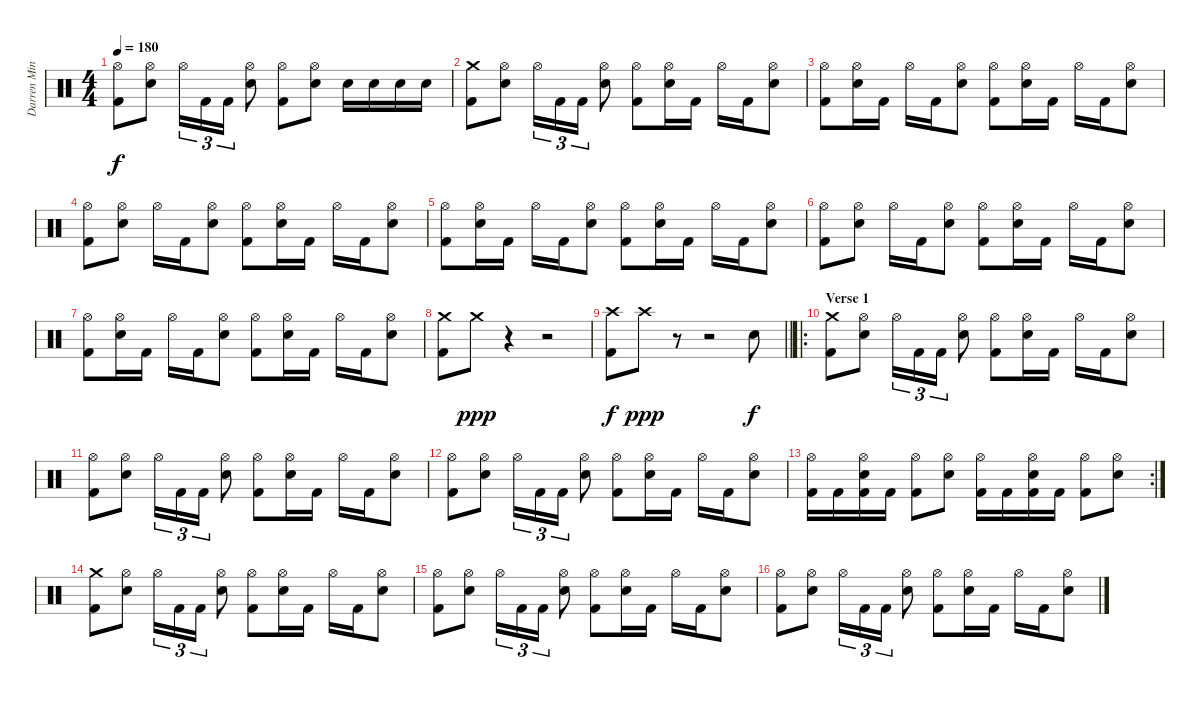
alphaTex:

\track ("Darren Minter" "Darren Min") {instrument percussion}
\staff {score}
\articulation defaults
\ts (4 4)
\tempo 180
\clef neutral
\ks c
("Hi-Hat (open)" "Kick (hit) 2").8{dy f} ("Hi-Hat (open)" "Electric Snare (hit)").8 "Hi-Hat (open)".16{tu (3 2)} "Kick (hit) 2".16{tu (3 2)} "Kick (hit) 2".16{tu (3 2)} ("Hi-Hat (open)" "Electric Snare (hit)").8 ("Hi-Hat (open)" "Kick (hit) 2").8 ("Hi-Hat (open)" "Electric Snare (hit)").8 "Electric Snare (hit)".16 "Electric Snare (hit)".16 "Electric Snare (hit)".16 "Electric Snare (hit)".16 |
("Crash medium (hit)" "Kick (hit) 2").8 ("Hi-Hat (open)" "Electric Snare (hit)").8 "Hi-Hat (open)".16{tu (3 2)} "Kick (hit) 2".16{tu (3 2)} "Kick (hit) 2".16{tu (3 2)} ("Hi-Hat (open)" "Electric Snare (hit)").8 ("Hi-Hat (open)" "Kick (hit) 2").8 ("Hi-Hat (open)" "Electric Snare (hit)").16 "Kick (hit) 2".16 "Hi-Hat (open)".16 "Kick (hit) 2".16 ("Hi-Hat (open)" "Electric Snare (hit)").8 |
("Hi-Hat (open)" "Kick (hit) 2").8 ("Hi-Hat (open)" "Electric Snare (hit)").16 "Kick (hit) 2".16 "Hi-Hat (open)".16 "Kick (hit) 2".16 ("Hi-Hat (open)" "Electric Snare (hit)").8 ("Hi-Hat (open)" "Kick (hit) 2").8 ("Hi-Hat (open)" "Electric Snare (hit)").16 "Kick (hit) 2".16 "Hi-Hat (open)".16 "Kick (hit) 2".16 ("Hi-Hat (open)" "Electric Snare (hit)").8 |
("Hi-Hat (open)" "Kick (hit) 2").8 ("Hi-Hat (open)" "Electric Snare (hit)").8 "Hi-Hat (open)".16 "Kick (hit) 2".16 ("Hi-Hat (open)" "Electric Snare (hit)").8 ("Hi-Hat (open)" "Kick (hit) 2").8 ("Hi-Hat (open)" "Electric Snare (hit)").16 "Kick (hit) 2".16 "Hi-Hat (open)".16 "Kick (hit) 2".16 ("Hi-Hat (open)" "Electric Snare (hit)").8 |
("Hi-Hat (open)" "Kick (hit) 2").8 ("Hi-Hat (open)" "Electric Snare (hit)").16 "Kick (hit) 2".16 "Hi-Hat (open)".16 "Kick (hit) 2".16 ("Hi-Hat (open)" "Electric Snare (hit)").8 ("Hi-Hat (open)" "Kick (hit) 2").8 ("Hi-Hat (open)" "Electric Snare (hit)").16 "Kick (hit) 2".16 "Hi-Hat (open)".16 "Kick (hit) 2".16 ("Hi-Hat (open)" "Electric Snare (hit)").8 |
("Hi-Hat (open)" "Kick (hit) 2").8 ("Hi-Hat (open)" "Electric Snare (hit)").8 "Hi-Hat (open)".16 "Kick (hit) 2".16 ("Hi-Hat (open)" "Electric Snare (hit)").8 ("Hi-Hat (open)" "Kick (hit) 2").8 ("Hi-Hat (open)" "Electric Snare (hit)").16 "Kick (hit) 2".16 "Hi-Hat (open)".16 "Kick (hit) 2".16 ("Hi-Hat (open)" "Electric Snare (hit)").8 |
("Hi-Hat (open)" "Kick (hit) 2").8 ("Hi-Hat (open)" "Electric Snare (hit)").16 "Kick (hit) 2".16 "Hi-Hat (open)".16 "Kick (hit) 2".16 ("Hi-Hat (open)" "Electric Snare (hit)").8 ("Hi-Hat (open)" "Kick (hit) 2").8 ("Hi-Hat (open)" "Electric Snare (hit)").16 "Kick (hit) 2".16 "Hi-Hat (open)".16 "Kick (hit) 2".16 ("Hi-Hat (open)" "Electric Snare (hit)").8 |
("Crash medium (hit)" "Kick (hit) 2").8 "Crash medium (hit)".8{dy ppp} r.4 r.2 |
\barLineRight lightlight
("Crash high (hit)" "Kick (hit) 2").8{dy f} "Crash high (hit)".8{dy ppp} r.8 r.2 "Electric Snare (hit)".8{dy f} |
\ro
\section ("" "Verse 1")
("Crash medium (hit)" "Kick (hit) 2").8 ("Hi-Hat (open)" "Electric Snare (hit)").8 "Hi-Hat (open)".16{tu (3 2)} "Kick (hit) 2".16{tu (3 2)} "Kick (hit) 2".16{tu (3 2)} ("Hi-Hat (open)" "Electric Snare (hit)").8 ("Hi-Hat (open)" "Kick (hit) 2").8 ("Hi-Hat (open)" "Electric Snare (hit)").16 "Kick (hit) 2".16 "Hi-Hat (open)".16 "Kick (hit) 2".16 ("Hi-Hat (open)" "Electric Snare (hit)").8 |
("Hi-Hat (open)" "Kick (hit) 2").8 ("Hi-Hat (open)" "Electric Snare (hit)").8 "Hi-Hat (open)".16{tu (3 2)} "Kick (hit) 2".16{tu (3 2)} "Kick (hit) 2".16{tu (3 2)} ("Hi-Hat (open)" "Electric Snare (hit)").8 ("Hi-Hat (open)" "Kick (hit) 2").8 ("Hi-Hat (open)" "Electric Snare (hit)").16 "Kick (hit) 2".16 "Hi-Hat (open)".16 "Kick (hit) 2".16 ("Hi-Hat (open)" "Electric Snare (hit)").8 |
("Hi-Hat (open)" "Kick (hit) 2").8 ("Hi-Hat (open)" "Electric Snare (hit)").8 "Hi-Hat (open)".16{tu (3 2)} "Kick (hit) 2".16{tu (3 2)} "Kick (hit) 2".16{tu (3 2)} ("Hi-Hat (open)" "Electric Snare (hit)").8 ("Hi-Hat (open)" "Kick (hit) 2").8 ("Hi-Hat (open)" "Electric Snare (hit)").16 "Kick (hit) 2".16 "Hi-Hat (open)".16 "Kick (hit) 2".16 ("Hi-Hat (open)" "Electric Snare (hit)").8 |
\rc 2
("Hi-Hat (open)" "Kick (hit) 2").16 "Kick (hit) 2".16 ("Hi-Hat (open)" "Electric Snare (hit)" "Kick (hit) 2").16 "Kick (hit) 2".16 ("Hi-Hat (open)" "Kick (hit) 2").8 ("Hi-Hat (open)" "Electric Snare (hit)").8 ("Hi-Hat (open)" "Kick (hit) 2").16 "Kick (hit) 2".16 ("Hi-Hat (open)" "Electric Snare (hit)" "Kick (hit) 2").16 "Kick (hit) 2".16 ("Hi-Hat (open)" "Kick (hit) 2").8 ("Hi-Hat (open)" "Electric Snare (hit)").8 |
("Crash medium (hit)" "Kick (hit) 2").8 ("Hi-Hat (open)" "Electric Snare (hit)").8 "Hi-Hat (open)".16{tu (3 2)} "Kick (hit) 2".16{tu (3 2)} "Kick (hit) 2".16{tu (3 2)} ("Hi-Hat (open)" "Electric Snare (hit)").8 ("Hi-Hat (open)" "Kick (hit) 2").8 ("Hi-Hat (open)" "Electric Snare (hit)").16 "Kick (hit) 2".16 "Hi-Hat (open)".16 "Kick (hit) 2".16 ("Hi-Hat (open)" "Electric Snare (hit)").8 |
("Hi-Hat (open)" "Kick (hit) 2").8 ("Hi-Hat (open)" "Electric Snare (hit)").8 "Hi-Hat (open)".16{tu (3 2)} "Kick (hit) 2".16{tu (3 2)} "Kick (hit) 2".16{tu (3 2)} ("Hi-Hat (open)" "Electric Snare (hit)").8 ("Hi-Hat (open)" "Kick (hit) 2").8 ("Hi-Hat (open)" "Electric Snare (hit)").16 "Kick (hit) 2".16 "Hi-Hat (open)".16 "Kick (hit) 2".16 ("Hi-Hat (open)" "Electric Snare (hit)").8 |
("Hi-Hat (open)" "Kick (hit) 2").8 ("Hi-Hat (open)" "Electric Snare (hit)").8 "Hi-Hat (open)".16{tu (3 2)} "Kick (hit) 2".16{tu (3 2)} "Kick (hit) 2".16{tu (3 2)} ("Hi-Hat (open)" "Electric Snare (hit)").8 ("Hi-Hat (open)" "Kick (hit) 2").8 ("Hi-Hat (open)" "Electric Snare (hit)").16 "Kick (hit) 2".16 "Hi-Hat (open)".16 "Kick (hit) 2".16 ("Hi-Hat (open)" "Electric Snare (hit)").8
